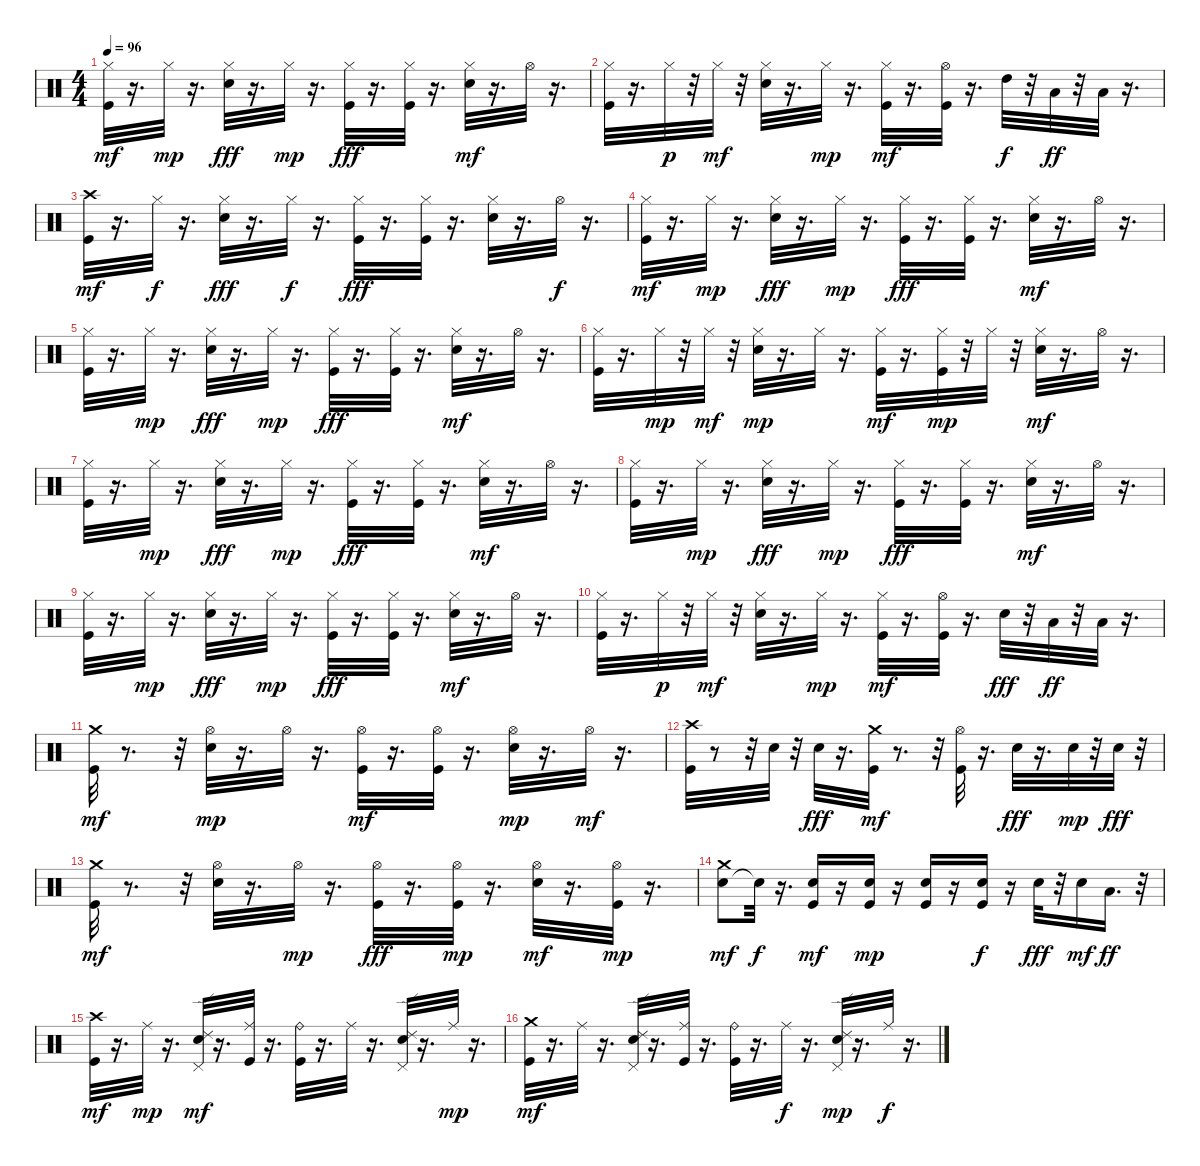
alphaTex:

\track "" {instrument percussion}
\staff {score}
\articulation defaults
\ts (4 4)
\tempo 96
\clef neutral
\ks c
("Kick (hit)" "Hi-Hat (closed)").32{dy mf} r.16{d} "Hi-Hat (closed)".32{dy mp} r.16{d} ("Electric Snare (hit)" "Hi-Hat (closed)").32{dy fff} r.16{d} "Hi-Hat (closed)".32{dy mp} r.16{d} ("Kick (hit)" "Hi-Hat (closed)").32{dy fff} r.16{d} ("Kick (hit)" "Hi-Hat (closed)").32 r.16{d} ("Electric Snare (hit)" "Hi-Hat (closed)").32{dy mf} r.16{d} "Hi-Hat (open)".32 r.16{d} |
("Kick (hit)" "Hi-Hat (closed)").32 r.16{d} "Hi-Hat (closed)".32{dy p} r.32 "Hi-Hat (closed)".32{dy mf} r.32 ("Electric Snare (hit)" "Hi-Hat (closed)").32 r.16{d} "Hi-Hat (closed)".32{dy mp} r.16{d} ("Kick (hit)" "Hi-Hat (closed)").32{dy mf} r.16{d} ("Kick (hit)" "Hi-Hat (open)").32 r.16{d} "High Tom (hit)".32{dy f} r.32 "Low Tom (hit)".32{dy ff} r.32 "Low Floor Tom (hit)".32 r.16{d} |
("Kick (hit)" "Crash high (hit)").32{dy mf} r.16{d} "Hi-Hat (closed)".32{dy f} r.16{d} ("Electric Snare (hit)" "Hi-Hat (closed)").32{dy fff} r.16{d} "Hi-Hat (closed)".32{dy f} r.16{d} ("Kick (hit)" "Hi-Hat (closed)").32{dy fff} r.16{d} ("Kick (hit)" "Hi-Hat (closed)").32 r.16{d} ("Electric Snare (hit)" "Hi-Hat (closed)").32 r.16{d} "Hi-Hat (open)".32{dy f} r.16{d} |
("Kick (hit)" "Hi-Hat (closed)").32{dy mf} r.16{d} "Hi-Hat (closed)".32{dy mp} r.16{d} ("Electric Snare (hit)" "Hi-Hat (closed)").32{dy fff} r.16{d} "Hi-Hat (closed)".32{dy mp} r.16{d} ("Kick (hit)" "Hi-Hat (closed)").32{dy fff} r.16{d} ("Kick (hit)" "Hi-Hat (closed)").32 r.16{d} ("Electric Snare (hit)" "Hi-Hat (closed)").32{dy mf} r.16{d} "Hi-Hat (open)".32 r.16{d} |
("Kick (hit)" "Hi-Hat (closed)").32 r.16{d} "Hi-Hat (closed)".32{dy mp} r.16{d} ("Electric Snare (hit)" "Hi-Hat (closed)").32{dy fff} r.16{d} "Hi-Hat (closed)".32{dy mp} r.16{d} ("Kick (hit)" "Hi-Hat (closed)").32{dy fff} r.16{d} ("Kick (hit)" "Hi-Hat (closed)").32 r.16{d} ("Electric Snare (hit)" "Hi-Hat (closed)").32{dy mf} r.16{d} "Hi-Hat (open)".32 r.16{d} |
("Kick (hit)" "Hi-Hat (closed)").32 r.16{d} "Hi-Hat (closed)".32{dy mp} r.32 "Hi-Hat (closed)".32{dy mf} r.32 ("Electric Snare (hit)" "Hi-Hat (closed)").32{dy mp} r.16{d} "Hi-Hat (closed)".32 r.16{d} ("Kick (hit)" "Hi-Hat (closed)").32{dy mf} r.16{d} ("Kick (hit)" "Hi-Hat (closed)").32{dy mp} r.32 "Hi-Hat (closed)".32 r.32 ("Electric Snare (hit)" "Hi-Hat (closed)").32{dy mf} r.16{d} "Hi-Hat (open)".32 r.16{d} |
("Kick (hit)" "Hi-Hat (closed)").32 r.16{d} "Hi-Hat (closed)".32{dy mp} r.16{d} ("Electric Snare (hit)" "Hi-Hat (closed)").32{dy fff} r.16{d} "Hi-Hat (closed)".32{dy mp} r.16{d} ("Kick (hit)" "Hi-Hat (closed)").32{dy fff} r.16{d} ("Kick (hit)" "Hi-Hat (closed)").32 r.16{d} ("Electric Snare (hit)" "Hi-Hat (closed)").32{dy mf} r.16{d} "Hi-Hat (open)".32 r.16{d} |
("Kick (hit)" "Hi-Hat (closed)").32 r.16{d} "Hi-Hat (closed)".32{dy mp} r.16{d} ("Electric Snare (hit)" "Hi-Hat (closed)").32{dy fff} r.16{d} "Hi-Hat (closed)".32{dy mp} r.16{d} ("Kick (hit)" "Hi-Hat (closed)").32{dy fff} r.16{d} ("Kick (hit)" "Hi-Hat (closed)").32 r.16{d} ("Electric Snare (hit)" "Hi-Hat (closed)").32{dy mf} r.16{d} "Hi-Hat (open)".32 r.16{d} |
("Kick (hit)" "Hi-Hat (closed)").32 r.16{d} "Hi-Hat (closed)".32{dy mp} r.16{d} ("Electric Snare (hit)" "Hi-Hat (closed)").32{dy fff} r.16{d} "Hi-Hat (closed)".32{dy mp} r.16{d} ("Kick (hit)" "Hi-Hat (closed)").32{dy fff} r.16{d} ("Kick (hit)" "Hi-Hat (closed)").32 r.16{d} ("Electric Snare (hit)" "Hi-Hat (closed)").32{dy mf} r.16{d} "Hi-Hat (open)".32 r.16{d} |
("Kick (hit)" "Hi-Hat (closed)").32 r.16{d} "Hi-Hat (closed)".32{dy p} r.32 "Hi-Hat (closed)".32{dy mf} r.32 ("Electric Snare (hit)" "Hi-Hat (closed)").32 r.16{d} "Hi-Hat (closed)".32{dy mp} r.16{d} ("Kick (hit)" "Hi-Hat (closed)").32{dy mf} r.16{d} ("Kick (hit)" "Hi-Hat (open)").32 r.16{d} "Electric Snare (hit)".32{dy fff} r.32 "Low Tom (hit)".32{dy ff} r.32 "Low Floor Tom (hit)".32 r.16{d} |
("Kick (hit)" "Crash medium (hit)").32{dy mf} r.8{d} r.32 ("Electric Snare (hit)" "Hi-Hat (open)").32{dy mp} r.16{d} "Hi-Hat (open)".32 r.16{d} ("Kick (hit)" "Hi-Hat (open)").32{dy mf} r.16{d} ("Kick (hit)" "Hi-Hat (open)").32 r.16{d} ("Electric Snare (hit)" "Hi-Hat (open)").32{dy mp} r.16{d} "Hi-Hat (open)".32{dy mf} r.16{d} |
("Kick (hit)" "Crash high (hit)").32 r.8 r.32 "Electric Snare (hit)".32 r.32 "Electric Snare (hit)".32{dy fff} r.16{d} ("Kick (hit)" "Crash medium (hit)").32{dy mf} r.8{d} r.32 ("Kick (hit)" "Hi-Hat (open)").32 r.16{d} "Electric Snare (hit)".32{dy fff} r.16{d} "Electric Snare (hit)".32{dy mp} r.32 "Electric Snare (hit)".32{dy fff} r.32 |
("Kick (hit)" "Crash medium (hit)").32{dy mf} r.8{d} r.32 ("Electric Snare (hit)" "Hi-Hat (open)").32 r.16{d} "Hi-Hat (open)".32{dy mp} r.16{d} ("Kick (hit)" "Hi-Hat (open)").32{dy fff} r.16{d} ("Kick (hit)" "Hi-Hat (open)").32{dy mp} r.16{d} ("Electric Snare (hit)" "Hi-Hat (open)").32{dy mf} r.16{d} ("Kick (hit)" "Hi-Hat (open)").32{dy mp} r.16{d} |
("Electric Snare (hit)" "Crash medium (hit)").8{dy mf} "Snare (hit)"{t}.32{dy f} r.16{d} ("Electric Snare (hit)" "Kick (hit)").16{dy mf} r.16 ("Electric Snare (hit)" "Kick (hit)").16{dy mp} r.16 ("Kick (hit)" "Electric Snare (hit)").16 r.16 ("Electric Snare (hit)" "Kick (hit)").16{dy f} r.16 "Electric Snare (hit)".32{dy fff} r.32 "Electric Snare (hit)".16{dy mf} "Low Floor Tom (hit)".16{d dy ff} r.32 |
("Kick (hit)" "Crash high (hit)").32{dy mf} r.16{d} "Ride (middle)".32{dy mp} r.16{d} ("Electric Snare (hit)" "Ride (edge) 2" "Pedal Hi-Hat (hit)").32{dy mf} r.16{d} ("Kick (hit)" "Ride (middle)").32 r.16{d} ("Kick (hit)" "Ride (bell)").32 r.16{d} "Ride (middle)".32 r.16{d} ("Electric Snare (hit)" "Ride (edge) 2" "Pedal Hi-Hat (hit)").32 r.16{d} "Ride (middle)".32{dy mp} r.16{d} |
("Kick (hit)" "Crash medium (hit)").32{dy mf} r.16{d} "Ride (middle)".32 r.16{d} ("Electric Snare (hit)" "Ride (edge) 2" "Pedal Hi-Hat (hit)").32 r.16{d} ("Kick (hit)" "Ride (middle)").32 r.16{d} ("Kick (hit)" "Ride (bell)").32 r.16{d} "Ride (middle)".32{dy f} r.16{d} ("Electric Snare (hit)" "Ride (edge) 2" "Pedal Hi-Hat (hit)").32{dy mp} r.16{d} "Ride (middle)".32{dy f} r.16{d}
